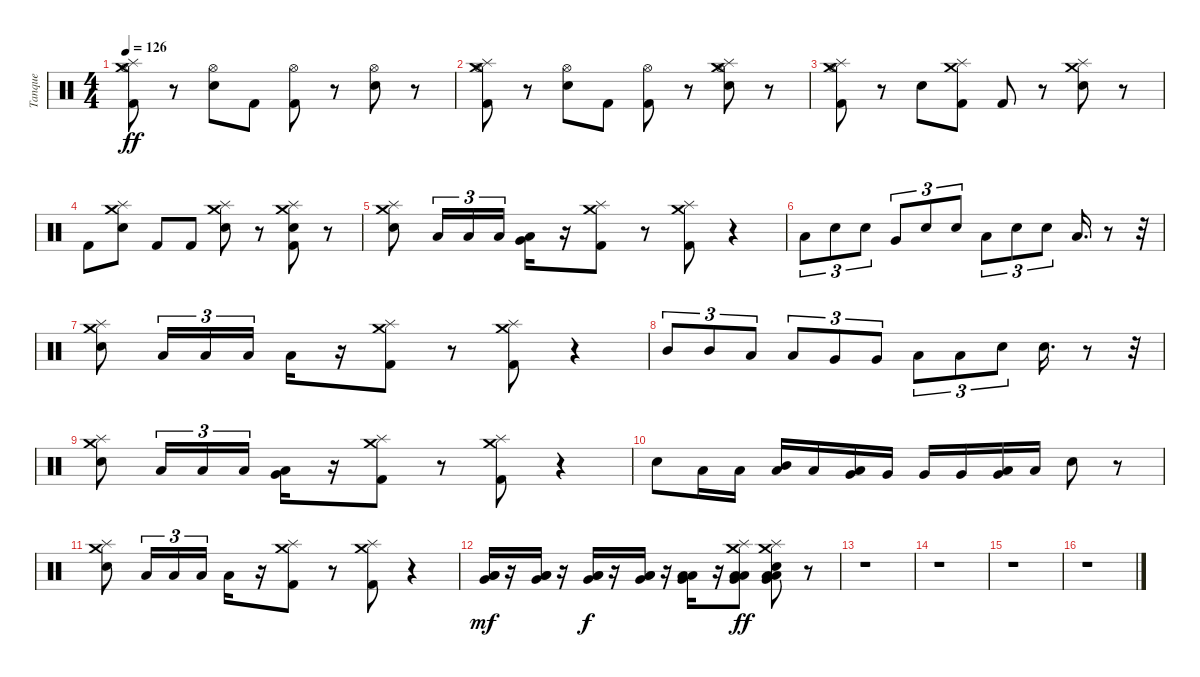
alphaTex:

\track ("Tanque" "Tanque") {instrument percussion}
\staff {score}
\articulation defaults
\ts (4 4)
\tempo 126
\clef neutral
\ks c
("Crash medium (hit)" "Splash (hit)" "Kick (hit) 2" "Hi-Hat (open)").8{dy ff} r.8 ("Snare (hit) 2" "Hi-Hat (open)").8 "Kick (hit) 2".8 ("Kick (hit) 2" "Hi-Hat (open)").8 r.8 ("Snare (hit) 2" "Hi-Hat (open)").8 r.8 |
("Crash medium (hit)" "Splash (hit)" "Kick (hit) 2" "Hi-Hat (open)").8 r.8 ("Snare (hit) 2" "Hi-Hat (open)").8 "Kick (hit) 2".8 ("Kick (hit) 2" "Hi-Hat (open)").8 r.8 ("Crash medium (hit)" "Splash (hit)" "Snare (hit) 2" "Hi-Hat (open)").8 r.8 |
("Crash medium (hit)" "Splash (hit)" "Kick (hit) 2" "Hi-Hat (open)").8 r.8 "Snare (hit) 2".8 ("Splash (hit)" "Crash medium (hit)" "Kick (hit) 2").8 "Kick (hit) 2".8 r.8 ("Crash medium (hit)" "Splash (hit)" "Snare (hit) 2").8 r.8 |
"Kick (hit) 2".8 ("Splash (hit)" "Crash medium (hit)" "Snare (hit) 2").8 "Kick (hit) 2".8 "Kick (hit) 2".8 ("Snare (hit) 2" "Crash medium (hit)" "Splash (hit)").8 r.8 ("Kick (hit) 2" "Snare (hit) 2" "Crash medium (hit)" "Splash (hit)").8 r.8 |
("Crash medium (hit)" "Splash (hit)" "Snare (hit) 2").8 "Low Tom (hit)".16{tu (3 2)} "Low Floor Tom (hit)".16{tu (3 2)} "Low Tom (hit)".16{tu (3 2)} ("Low Floor Tom (hit)" "Very Low Tom (hit)").16 r.16 ("Crash medium (hit)" "Splash (hit)" "Kick (hit) 2").8 r.8 ("Crash medium (hit)" "Splash (hit)" "Kick (hit) 2").8 r.4 |
"Low Tom (hit)".8{tu (3 2)} "Snare (hit) 2".8{tu (3 2)} "Snare (hit) 2".8{tu (3 2)} "Very Low Tom (hit)".8{tu (3 2)} "Snare (hit) 2".8{tu (3 2)} "Snare (hit) 2".8{tu (3 2)} "Low Floor Tom (hit)".8{tu (3 2)} "Snare (hit) 2".8{tu (3 2)} "Snare (hit) 2".8{tu (3 2)} "Low Floor Tom (hit)".16{d} r.8 r.32 |
("Splash (hit)" "Crash medium (hit)" "Snare (hit) 2").8 "Low Tom (hit)".16{tu (3 2)} "Low Floor Tom (hit)".16{tu (3 2)} "Low Tom (hit)".16{tu (3 2)} "Low Floor Tom (hit)".16 r.16 ("Crash medium (hit)" "Splash (hit)" "Kick (hit) 2").8 r.8 ("Crash medium (hit)" "Splash (hit)" "Kick (hit) 2").8 r.4 |
"Mid Tom (hit)".8{tu (3 2)} "Mid Tom (hit)".8{tu (3 2)} "Low Tom (hit)".8{tu (3 2)} "Low Tom (hit)".8{tu (3 2)} "Very Low Tom (hit)".8{tu (3 2)} "Very Low Tom (hit)".8{tu (3 2)} "Low Floor Tom (hit)".8{tu (3 2)} "Low Floor Tom (hit)".8{tu (3 2)} "Snare (hit) 2".8{tu (3 2)} "Snare (hit) 2".16{d} r.8 r.32 |
("Splash (hit)" "Crash medium (hit)" "Snare (hit) 2").8 "Low Tom (hit)".16{tu (3 2)} "Low Floor Tom (hit)".16{tu (3 2)} "Low Tom (hit)".16{tu (3 2)} ("Low Floor Tom (hit)" "Very Low Tom (hit)").16 r.16 ("Crash medium (hit)" "Splash (hit)" "Kick (hit) 2").8 r.8 ("Crash medium (hit)" "Splash (hit)" "Kick (hit) 2").8 r.4 |
"Snare (hit) 2".8 "Low Tom (hit)".16 "Low Tom (hit)".16 ("Low Tom (hit)" "Mid Tom (hit)").16 "Low Tom (hit)".16 ("Low Tom (hit)" "Very Low Tom (hit)").16 "Very Low Tom (hit)".16 "Very Low Tom (hit)".16 "Very Low Tom (hit)".16 ("Very Low Tom (hit)" "Low Floor Tom (hit)").16 "Low Floor Tom (hit)".16 "Snare (hit) 2".8 r.8 |
("Snare (hit) 2" "Splash (hit)" "Crash medium (hit)").8 "Low Tom (hit)".16{tu (3 2)} "Low Floor Tom (hit)".16{tu (3 2)} "Low Tom (hit)".16{tu (3 2)} "Low Floor Tom (hit)".16 r.16 ("Kick (hit) 2" "Splash (hit)" "Crash medium (hit)").8 r.8 ("Kick (hit) 2" "Splash (hit)" "Crash medium (hit)").8 r.4 |
("Low Tom (hit)" "Very Low Tom (hit)" "Low Floor Tom (hit)").16{dy mf} r.16 ("Low Tom (hit)" "Very Low Tom (hit)" "Low Floor Tom (hit)").16 r.16 ("Low Tom (hit)" "Very Low Tom (hit)" "Low Floor Tom (hit)").16{dy f} r.16 ("Low Tom (hit)" "Very Low Tom (hit)" "Low Floor Tom (hit)").16 r.16 ("Low Tom (hit)" "Low Floor Tom (hit)" "Very Low Tom (hit)").16 r.16 ("Low Tom (hit)" "Very Low Tom (hit)" "Low Floor Tom (hit)" "Crash medium (hit)" "Splash (hit)").8{dy ff} ("Snare (hit) 2" "Low Tom (hit)" "Very Low Tom (hit)" "Low Floor Tom (hit)" "Splash (hit)" "Crash medium (hit)").8 r.8 |
r.1 |
r.1 |
r.1 |
r.1
